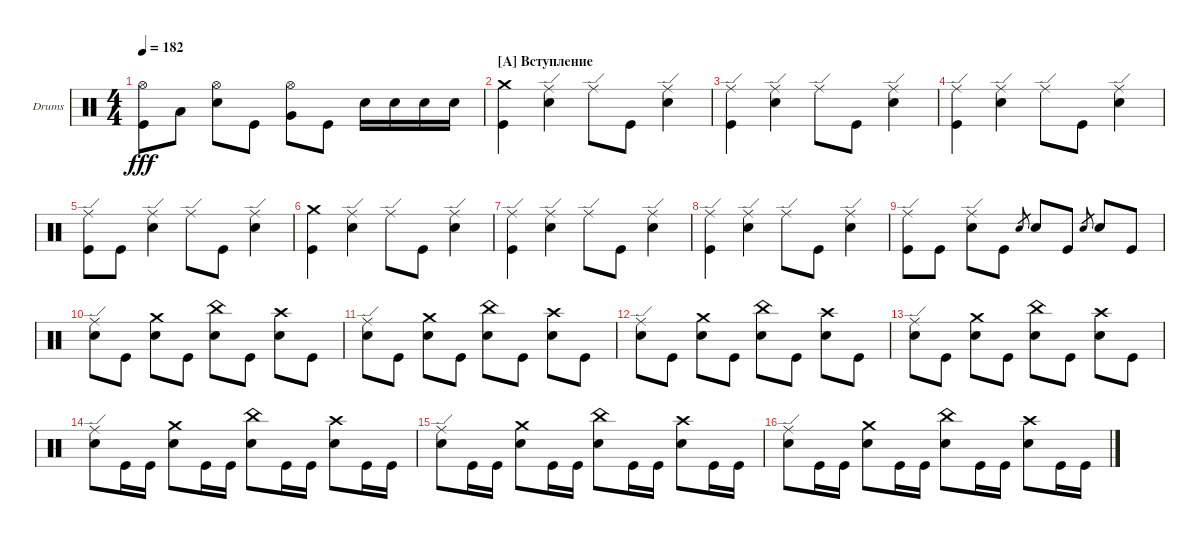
\defaultSystemsLayout 4
\bracketExtendMode groupsimilarinstruments
\firstSystemTrackNameOrientation horizontal
\otherSystemsTrackNameOrientation horizontal
\track ("Drumkit" "Drums") {instrument percussion}
\staff {score}
\articulation defaults
\ts (4 4)
\tempo 182
\clef neutral
\ks c
("Kick (hit)" "Hi-Hat (open)").8{dy fff} "Low Tom (hit)".8 ("Snare (hit) 2" "Hi-Hat (open)").8 "Kick (hit)".8 ("Very Low Tom (hit)" "Hi-Hat (open)").8 "Kick (hit)".8 "Snare (hit) 2".16 "Snare (hit) 2".16 "Snare (hit) 2".16 "Snare (hit) 2".16 |
\section ("A" "Вступление")
("Kick (hit)" "Crash medium (hit)").4 ("Snare (hit) 2" "Ride (edge)").4 "Ride (edge)".8 "Kick (hit)".8 ("Snare (hit) 2" "Ride (edge)").4 |
("Kick (hit)" "Ride (edge)").4 ("Snare (hit) 2" "Ride (edge)").4 "Ride (edge)".8 "Kick (hit)".8 ("Snare (hit) 2" "Ride (edge)").4 |
("Kick (hit)" "Ride (edge)").4 ("Snare (hit) 2" "Ride (edge)").4 "Ride (edge)".8 "Kick (hit)".8 ("Snare (hit) 2" "Ride (edge)").4 |
("Kick (hit)" "Ride (edge)").8 "Kick (hit)".8 ("Snare (hit) 2" "Ride (edge)").4 "Ride (edge)".8 "Kick (hit)".8 ("Snare (hit) 2" "Ride (edge)").4 |
("Kick (hit)" "Crash medium (hit)").4 ("Snare (hit) 2" "Ride (edge)").4 "Ride (edge)".8 "Kick (hit)".8 ("Snare (hit) 2" "Ride (edge)").4 |
("Kick (hit)" "Ride (edge)").4 ("Snare (hit) 2" "Ride (edge)").4 "Ride (edge)".8 "Kick (hit)".8 ("Snare (hit) 2" "Ride (edge)").4 |
("Kick (hit)" "Ride (edge)").4 ("Snare (hit) 2" "Ride (edge)").4 "Ride (edge)".8 "Kick (hit)".8 ("Snare (hit) 2" "Ride (edge)").4 |
("Kick (hit)" "Ride (edge)").8 "Kick (hit)".8 ("Snare (hit) 2" "Ride (edge)").8 "Kick (hit)".8 "Snare (hit) 2".8{gr} "Snare (hit) 2".8 "Kick (hit)".8 "Snare (hit) 2".8{gr} "Snare (hit) 2".8 "Kick (hit)".8 |
("Snare (hit) 2" "Ride (edge)").8 "Kick (hit)".8 ("Snare (hit) 2" "Crash medium (hit)").8 "Kick (hit)".8 ("Snare (hit) 2" "China (hit)").8 "Kick (hit)".8 ("Snare (hit) 2" "Crash high (hit)").8 "Kick (hit)".8 |
("Snare (hit) 2" "Ride (edge)").8 "Kick (hit)".8 ("Snare (hit) 2" "Crash medium (hit)").8 "Kick (hit)".8 ("Snare (hit) 2" "China (hit)").8 "Kick (hit)".8 ("Snare (hit) 2" "Crash high (hit)").8 "Kick (hit)".8 |
("Snare (hit) 2" "Ride (edge)").8 "Kick (hit)".8 ("Snare (hit) 2" "Crash medium (hit)").8 "Kick (hit)".8 ("Snare (hit) 2" "China (hit)").8 "Kick (hit)".8 ("Snare (hit) 2" "Crash high (hit)").8 "Kick (hit)".8 |
("Snare (hit) 2" "Ride (edge)").8 "Kick (hit)".8 ("Snare (hit) 2" "Crash medium (hit)").8 "Kick (hit)".8 ("Snare (hit) 2" "China (hit)").8 "Kick (hit)".8 ("Snare (hit) 2" "Crash high (hit)").8 "Kick (hit)".8 |
("Snare (hit) 2" "Ride (edge)").8 "Kick (hit)".16 "Kick (hit)".16 ("Snare (hit) 2" "Crash medium (hit)").8 "Kick (hit)".16 "Kick (hit)".16 ("Snare (hit) 2" "China (hit)").8 "Kick (hit)".16 "Kick (hit)".16 ("Snare (hit) 2" "Crash high (hit)").8 "Kick (hit)".16 "Kick (hit)".16 |
("Snare (hit) 2" "Ride (edge)").8 "Kick (hit)".16 "Kick (hit)".16 ("Snare (hit) 2" "Crash medium (hit)").8 "Kick (hit)".16 "Kick (hit)".16 ("Snare (hit) 2" "China (hit)").8 "Kick (hit)".16 "Kick (hit)".16 ("Snare (hit) 2" "Crash high (hit)").8 "Kick (hit)".16 "Kick (hit)".16 |
("Snare (hit) 2" "Ride (edge)").8 "Kick (hit)".16 "Kick (hit)".16 ("Snare (hit) 2" "Crash medium (hit)").8 "Kick (hit)".16 "Kick (hit)".16 ("Snare (hit) 2" "China (hit)").8 "Kick (hit)".16 "Kick (hit)".16 ("Snare (hit) 2" "Crash high (hit)").8 "Kick (hit)".16 "Kick (hit)".16
